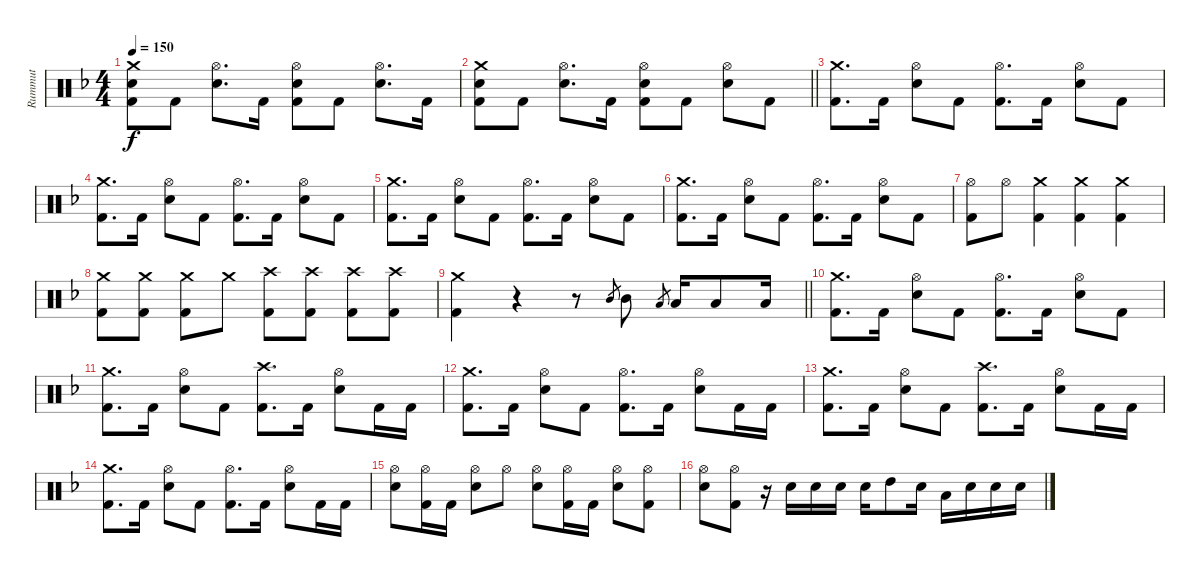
\track ("Rummut" "Rummut") {instrument percussion}
\staff {score}
\articulation defaults
\ts (4 4)
\tempo 150
\clef neutral
\ks dminor
("Crash medium (hit)" "Snare (hit) 2" "Kick (hit) 2").8{dy f} "Kick (hit) 2".8 ("Hi-Hat (open)" "Snare (hit) 2").8{d} "Kick (hit) 2".16 ("Hi-Hat (open)" "Snare (hit) 2" "Kick (hit) 2").8 "Kick (hit) 2".8 ("Hi-Hat (open)" "Snare (hit) 2").8{d} "Kick (hit) 2".16 |
\barLineRight lightlight
("Crash medium (hit)" "Snare (hit) 2" "Kick (hit) 2").8 "Kick (hit) 2".8 ("Hi-Hat (open)" "Snare (hit) 2").8{d} "Kick (hit) 2".16 ("Hi-Hat (open)" "Snare (hit) 2" "Kick (hit) 2").8 "Kick (hit) 2".8 ("Hi-Hat (open)" "Snare (hit) 2").8 "Kick (hit) 2".8 |
("Crash medium (hit)" "Kick (hit) 2").8{d} "Kick (hit) 2".16 ("Hi-Hat (open)" "Snare (hit) 2").8 "Kick (hit) 2".8 ("Hi-Hat (open)" "Kick (hit) 2").8{d} "Kick (hit) 2".16 ("Hi-Hat (open)" "Snare (hit) 2").8 "Kick (hit) 2".8 |
("Crash medium (hit)" "Kick (hit) 2").8{d} "Kick (hit) 2".16 ("Hi-Hat (open)" "Snare (hit) 2").8 "Kick (hit) 2".8 ("Hi-Hat (open)" "Kick (hit) 2").8{d} "Kick (hit) 2".16 ("Hi-Hat (open)" "Snare (hit) 2").8 "Kick (hit) 2".8 |
("Crash medium (hit)" "Kick (hit) 2").8{d} "Kick (hit) 2".16 ("Hi-Hat (open)" "Snare (hit) 2").8 "Kick (hit) 2".8 ("Hi-Hat (open)" "Kick (hit) 2").8{d} "Kick (hit) 2".16 ("Hi-Hat (open)" "Snare (hit) 2").8 "Kick (hit) 2".8 |
("Crash medium (hit)" "Kick (hit) 2").8{d} "Kick (hit) 2".16 ("Hi-Hat (open)" "Snare (hit) 2").8 "Kick (hit) 2".8 ("Hi-Hat (open)" "Kick (hit) 2").8{d} "Kick (hit) 2".16 ("Hi-Hat (open)" "Snare (hit) 2").8 "Kick (hit) 2".8 |
("Hi-Hat (open)" "Kick (hit) 2").8 "Hi-Hat (open)".8 ("Crash medium (hit)" "Kick (hit) 2").4 ("Crash medium (hit)" "Kick (hit) 2").4 ("Crash medium (hit)" "Kick (hit) 2").4 |
("Crash medium (hit)" "Kick (hit) 2").8 ("Crash medium (hit)" "Kick (hit) 2").8 ("Crash medium (hit)" "Kick (hit) 2").8 "Crash medium (hit)".8 ("Crash high (hit)" "Kick (hit) 2").8 ("Crash high (hit)" "Kick (hit) 2").8 ("Crash high (hit)" "Kick (hit) 2").8 ("Crash high (hit)" "Kick (hit) 2").8 |
\barLineRight lightlight
("Crash medium (hit)" "Kick (hit) 2").4 r.4 r.8 "Mid Tom (hit)".8{gr} "Mid Tom (hit)".8 "Low Tom (hit)".8{gr} "Low Tom (hit)".16 "Low Tom (hit)".8 "Low Tom (hit)".16 |
("Crash medium (hit)" "Kick (hit) 2").8{d} "Kick (hit) 2".16 ("Hi-Hat (open)" "Snare (hit) 2").8 "Kick (hit) 2".8 ("Hi-Hat (open)" "Kick (hit) 2").8{d} "Kick (hit) 2".16 ("Hi-Hat (open)" "Snare (hit) 2").8 "Kick (hit) 2".8 |
("Crash medium (hit)" "Kick (hit) 2").8{d} "Kick (hit) 2".16 ("Hi-Hat (open)" "Snare (hit) 2").8 "Kick (hit) 2".8 ("Crash high (hit)" "Kick (hit) 2").8{d} "Kick (hit) 2".16 ("Hi-Hat (open)" "Snare (hit) 2").8 "Kick (hit) 2".16 "Kick (hit) 2".16 |
("Crash medium (hit)" "Kick (hit) 2").8{d} "Kick (hit) 2".16 ("Hi-Hat (open)" "Snare (hit) 2").8 "Kick (hit) 2".8 ("Hi-Hat (open)" "Kick (hit) 2").8{d} "Kick (hit) 2".16 ("Hi-Hat (open)" "Snare (hit) 2").8 "Kick (hit) 2".16 "Kick (hit) 2".16 |
("Crash medium (hit)" "Kick (hit) 2").8{d} "Kick (hit) 2".16 ("Hi-Hat (open)" "Snare (hit) 2").8 "Kick (hit) 2".8 ("Crash high (hit)" "Kick (hit) 2").8{d} "Kick (hit) 2".16 ("Hi-Hat (open)" "Snare (hit) 2").8 "Kick (hit) 2".16 "Kick (hit) 2".16 |
("Crash medium (hit)" "Kick (hit) 2").8{d} "Kick (hit) 2".16 ("Hi-Hat (open)" "Snare (hit) 2").8 "Kick (hit) 2".8 ("Hi-Hat (open)" "Kick (hit) 2").8{d} "Kick (hit) 2".16 ("Hi-Hat (open)" "Snare (hit) 2").8 "Kick (hit) 2".16 "Kick (hit) 2".16 |
("Hi-Hat (open)" "Snare (hit) 2").8 ("Hi-Hat (open)" "Kick (hit) 2").16 "Kick (hit) 2".16 ("Hi-Hat (open)" "Snare (hit) 2").8 "Hi-Hat (open)".8 ("Hi-Hat (open)" "Snare (hit) 2").8 ("Hi-Hat (open)" "Kick (hit) 2").16 "Kick (hit) 2".16 ("Hi-Hat (open)" "Snare (hit) 2").8 ("Hi-Hat (open)" "Kick (hit) 2").8 |
("Hi-Hat (open)" "Snare (hit) 2").8 ("Hi-Hat (open)" "Kick (hit) 2").8 r.16 "Snare (hit) 2".16 "Snare (hit) 2".16 "Snare (hit) 2".16 "Snare (hit) 2".16 "High Tom (hit)".8 "Snare (hit) 2".16 "Low Tom (hit)".16 "Snare (hit) 2".16 "Snare (hit) 2".16 "Snare (hit) 2".16
